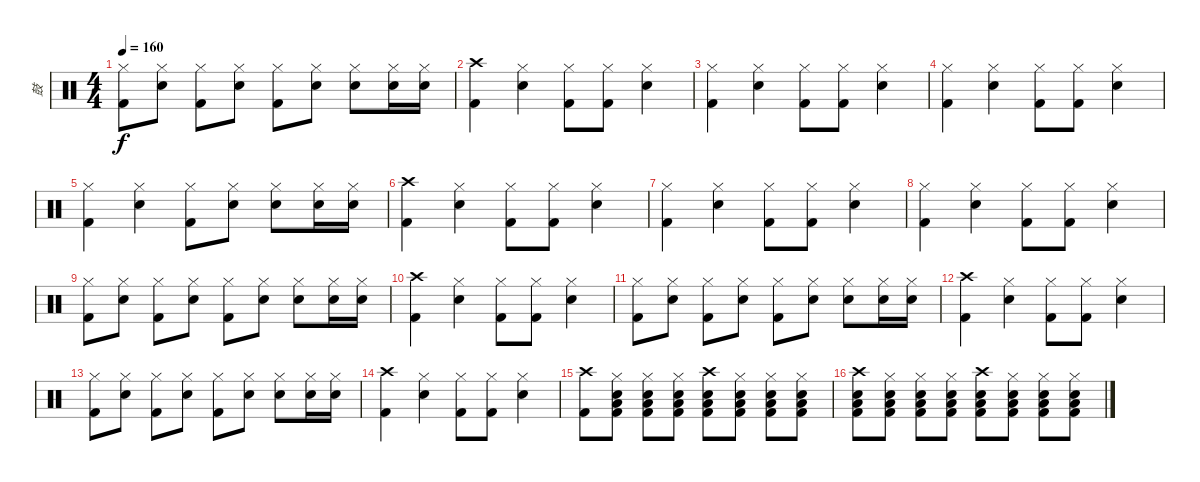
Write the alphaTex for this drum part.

\track ("鼓" "鼓") {instrument percussion}
\staff {score}
\articulation defaults
\ts (4 4)
\tempo 160
\clef neutral
\ks c
("Hi-Hat (closed)" "Kick (hit) 2").8{dy f} ("Hi-Hat (closed)" "Snare (hit) 2").8 ("Hi-Hat (closed)" "Kick (hit) 2").8 ("Hi-Hat (closed)" "Snare (hit) 2").8 ("Hi-Hat (closed)" "Kick (hit) 2").8 ("Hi-Hat (closed)" "Snare (hit) 2").8 ("Hi-Hat (closed)" "Snare (hit) 2").8 ("Hi-Hat (closed)" "Snare (hit) 2").16 ("Hi-Hat (closed)" "Snare (hit) 2").16 |
("Crash high (hit)" "Kick (hit) 2").4 ("Hi-Hat (closed)" "Snare (hit) 2").4 ("Hi-Hat (closed)" "Kick (hit) 2").8 ("Hi-Hat (closed)" "Kick (hit) 2").8 ("Hi-Hat (closed)" "Snare (hit) 2").4 |
("Hi-Hat (closed)" "Kick (hit) 2").4 ("Hi-Hat (closed)" "Snare (hit) 2").4 ("Hi-Hat (closed)" "Kick (hit) 2").8 ("Hi-Hat (closed)" "Kick (hit) 2").8 ("Hi-Hat (closed)" "Snare (hit) 2").4 |
("Hi-Hat (closed)" "Kick (hit) 2").4 ("Hi-Hat (closed)" "Snare (hit) 2").4 ("Hi-Hat (closed)" "Kick (hit) 2").8 ("Hi-Hat (closed)" "Kick (hit) 2").8 ("Hi-Hat (closed)" "Snare (hit) 2").4 |
("Hi-Hat (closed)" "Kick (hit) 2").4 ("Hi-Hat (closed)" "Snare (hit) 2").4 ("Hi-Hat (closed)" "Kick (hit) 2").8 ("Hi-Hat (closed)" "Snare (hit) 2").8 ("Hi-Hat (closed)" "Snare (hit) 2").8 ("Hi-Hat (closed)" "Snare (hit) 2").16 ("Hi-Hat (closed)" "Snare (hit) 2").16 |
("Crash high (hit)" "Kick (hit) 2").4 ("Hi-Hat (closed)" "Snare (hit) 2").4 ("Hi-Hat (closed)" "Kick (hit) 2").8 ("Hi-Hat (closed)" "Kick (hit) 2").8 ("Hi-Hat (closed)" "Snare (hit) 2").4 |
("Hi-Hat (closed)" "Kick (hit) 2").4 ("Hi-Hat (closed)" "Snare (hit) 2").4 ("Hi-Hat (closed)" "Kick (hit) 2").8 ("Hi-Hat (closed)" "Kick (hit) 2").8 ("Hi-Hat (closed)" "Snare (hit) 2").4 |
("Hi-Hat (closed)" "Kick (hit) 2").4 ("Hi-Hat (closed)" "Snare (hit) 2").4 ("Hi-Hat (closed)" "Kick (hit) 2").8 ("Hi-Hat (closed)" "Kick (hit) 2").8 ("Hi-Hat (closed)" "Snare (hit) 2").4 |
("Hi-Hat (closed)" "Kick (hit) 2").8 ("Hi-Hat (closed)" "Snare (hit) 2").8 ("Hi-Hat (closed)" "Kick (hit) 2").8 ("Hi-Hat (closed)" "Snare (hit) 2").8 ("Hi-Hat (closed)" "Kick (hit) 2").8 ("Hi-Hat (closed)" "Snare (hit) 2").8 ("Hi-Hat (closed)" "Snare (hit) 2").8 ("Hi-Hat (closed)" "Snare (hit) 2").16 ("Hi-Hat (closed)" "Snare (hit) 2").16 |
("Crash high (hit)" "Kick (hit) 2").4 ("Hi-Hat (closed)" "Snare (hit) 2").4 ("Hi-Hat (closed)" "Kick (hit) 2").8 ("Hi-Hat (closed)" "Kick (hit) 2").8 ("Hi-Hat (closed)" "Snare (hit) 2").4 |
("Hi-Hat (closed)" "Kick (hit) 2").8 ("Hi-Hat (closed)" "Snare (hit) 2").8 ("Hi-Hat (closed)" "Kick (hit) 2").8 ("Hi-Hat (closed)" "Snare (hit) 2").8 ("Hi-Hat (closed)" "Kick (hit) 2").8 ("Hi-Hat (closed)" "Snare (hit) 2").8 ("Hi-Hat (closed)" "Snare (hit) 2").8 ("Hi-Hat (closed)" "Snare (hit) 2").16 ("Hi-Hat (closed)" "Snare (hit) 2").16 |
("Crash high (hit)" "Kick (hit) 2").4 ("Hi-Hat (closed)" "Snare (hit) 2").4 ("Hi-Hat (closed)" "Kick (hit) 2").8 ("Hi-Hat (closed)" "Kick (hit) 2").8 ("Hi-Hat (closed)" "Snare (hit) 2").4 |
("Hi-Hat (closed)" "Kick (hit) 2").8 ("Hi-Hat (closed)" "Snare (hit) 2").8 ("Hi-Hat (closed)" "Kick (hit) 2").8 ("Hi-Hat (closed)" "Snare (hit) 2").8 ("Hi-Hat (closed)" "Kick (hit) 2").8 ("Hi-Hat (closed)" "Snare (hit) 2").8 ("Hi-Hat (closed)" "Snare (hit) 2").8 ("Hi-Hat (closed)" "Snare (hit) 2").16 ("Hi-Hat (closed)" "Snare (hit) 2").16 |
("Crash high (hit)" "Kick (hit) 2").4 ("Hi-Hat (closed)" "Snare (hit) 2").4 ("Hi-Hat (closed)" "Kick (hit) 2").8 ("Hi-Hat (closed)" "Kick (hit) 2").8 ("Hi-Hat (closed)" "Snare (hit) 2").4 |
("Crash high (hit)" "Kick (hit) 2").8 ("Hi-Hat (closed)" "Snare (hit) 2" "Low Floor Tom (hit)" "Kick (hit) 2").8 ("Hi-Hat (closed)" "Snare (hit) 2" "Low Floor Tom (hit)" "Kick (hit) 2").8 ("Hi-Hat (closed)" "Snare (hit) 2" "Low Floor Tom (hit)" "Kick (hit) 2").8 ("Crash high (hit)" "Snare (hit) 2" "Low Floor Tom (hit)" "Kick (hit) 2").8 ("Hi-Hat (closed)" "Snare (hit) 2" "Low Floor Tom (hit)" "Kick (hit) 2").8 ("Hi-Hat (closed)" "Snare (hit) 2" "Low Floor Tom (hit)" "Kick (hit) 2").8 ("Hi-Hat (closed)" "Snare (hit) 2" "Low Floor Tom (hit)" "Kick (hit) 2").8 |
("Crash high (hit)" "Snare (hit) 2" "Low Floor Tom (hit)" "Kick (hit) 2").8 ("Hi-Hat (closed)" "Snare (hit) 2" "Low Floor Tom (hit)" "Kick (hit) 2").8 ("Hi-Hat (closed)" "Snare (hit) 2" "Low Floor Tom (hit)" "Kick (hit) 2").8 ("Hi-Hat (closed)" "Snare (hit) 2" "Low Floor Tom (hit)" "Kick (hit) 2").8 ("Crash high (hit)" "Snare (hit) 2" "Low Floor Tom (hit)" "Kick (hit) 2").8 ("Hi-Hat (closed)" "Snare (hit) 2" "Low Floor Tom (hit)" "Kick (hit) 2").8 ("Hi-Hat (closed)" "Snare (hit) 2" "Low Floor Tom (hit)" "Kick (hit) 2").8 ("Hi-Hat (closed)" "Snare (hit) 2" "Low Floor Tom (hit)" "Kick (hit) 2").8
